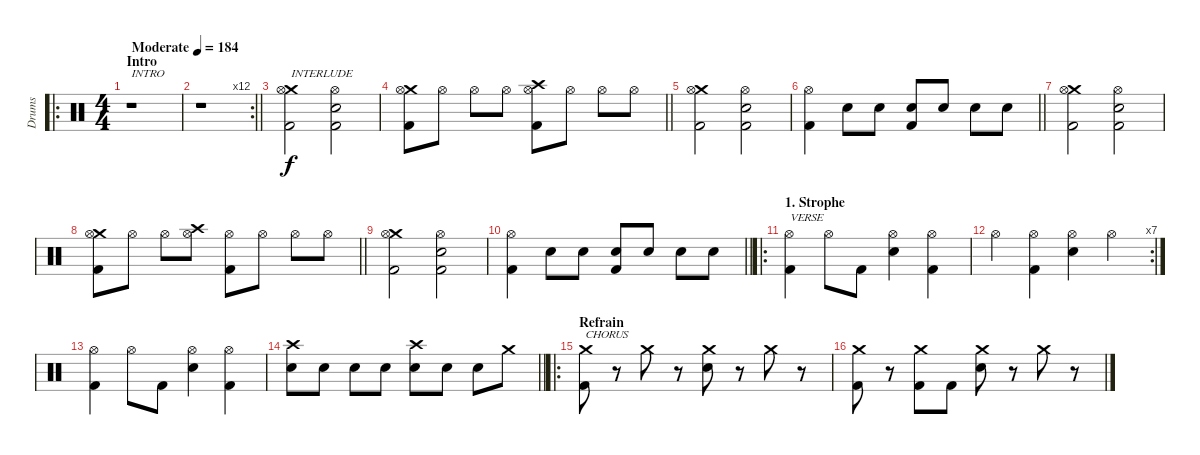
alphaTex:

\track ("Drums" "Drums") {instrument percussion}
\staff {score}
\articulation defaults
\ro
\ts (4 4)
\section ("" "Intro")
\tempo (184 "Moderate")
\clef neutral
\ks c
r.1{txt "INTRO" dy f} |
\rc 12
\barLineRight lightlight
r.1 |
("Crash medium (hit)" "Hi-Hat (open)" "Kick (hit) 2").2{txt "INTERLUDE"} ("Hi-Hat (open)" "Electric Snare (hit)" "Kick (hit) 2").2 |
\barLineRight lightlight
("Crash medium (hit)" "Hi-Hat (open)" "Kick (hit) 2").8 "Hi-Hat (open)".8 "Hi-Hat (open)".8 "Hi-Hat (open)".8 ("Crash high (hit)" "Hi-Hat (open)" "Kick (hit) 2").8 "Hi-Hat (open)".8 "Hi-Hat (open)".8 "Hi-Hat (open)".8 |
("Crash medium (hit)" "Hi-Hat (open)" "Kick (hit) 2").2 ("Hi-Hat (open)" "Electric Snare (hit)" "Kick (hit) 2").2 |
\barLineRight lightlight
("Hi-Hat (open)" "Kick (hit) 2").4 "Electric Snare (hit)".8 "Electric Snare (hit)".8 ("Electric Snare (hit)" "Kick (hit) 2").8 "Electric Snare (hit)".8 "Electric Snare (hit)".8 "Electric Snare (hit)".8 |
("Crash medium (hit)" "Hi-Hat (open)" "Kick (hit) 2").2 ("Hi-Hat (open)" "Electric Snare (hit)" "Kick (hit) 2").2 |
\barLineRight lightlight
("Crash medium (hit)" "Hi-Hat (open)" "Kick (hit) 2").8 "Hi-Hat (open)".8 "Hi-Hat (open)".8 ("Crash high (hit)" "Hi-Hat (open)").8 ("Hi-Hat (open)" "Kick (hit) 2").8 "Hi-Hat (open)".8 "Hi-Hat (open)".8 "Hi-Hat (open)".8 |
("Crash medium (hit)" "Hi-Hat (open)" "Kick (hit) 2").2 ("Hi-Hat (open)" "Electric Snare (hit)" "Kick (hit) 2").2 |
\barLineRight lightlight
("Hi-Hat (open)" "Kick (hit) 2").4 "Electric Snare (hit)".8 "Electric Snare (hit)".8 ("Electric Snare (hit)" "Kick (hit) 2").8 "Electric Snare (hit)".8 "Electric Snare (hit)".8 "Electric Snare (hit)".8 |
\ro
\section ("" "1. Strophe")
("Hi-Hat (open)" "Kick (hit) 2").4{txt "VERSE"} "Hi-Hat (open)".8 "Kick (hit) 2".8 ("Hi-Hat (open)" "Electric Snare (hit)").4 ("Hi-Hat (open)" "Kick (hit) 2").4 |
\rc 7 "Hi-Hat (open)".4
("Hi-Hat (open)" "Kick (hit) 2").4 ("Hi-Hat (open)" "Electric Snare (hit)").4 "Hi-Hat (open)".4 |
("Hi-Hat (open)" "Kick (hit) 2").4 "Hi-Hat (open)".8 "Kick (hit) 2".8 ("Hi-Hat (open)" "Electric Snare (hit)").4 ("Hi-Hat (open)" "Kick (hit) 2").4 |
\barLineRight lightlight
("Crash high (hit)" "Electric Snare (hit)").8 "Electric Snare (hit)".8 "Electric Snare (hit)".8 "Electric Snare (hit)".8 ("Crash high (hit)" "Electric Snare (hit)").8 "Electric Snare (hit)".8 "Electric Snare (hit)".8 "Crash medium (hit)".8 |
\ro
\section ("" "Refrain")
("Crash medium (hit)" "Kick (hit) 2").8{txt "CHORUS"} r.8 "Crash medium (hit)".8 r.8 ("Crash medium (hit)" "Electric Snare (hit)").8 r.8 "Crash medium (hit)".8 r.8 |
("Crash medium (hit)" "Kick (hit) 2").8 r.8 ("Crash medium (hit)" "Kick (hit) 2").8 "Kick (hit) 2".8 ("Crash medium (hit)" "Electric Snare (hit)").8 r.8 "Crash medium (hit)".8 r.8
